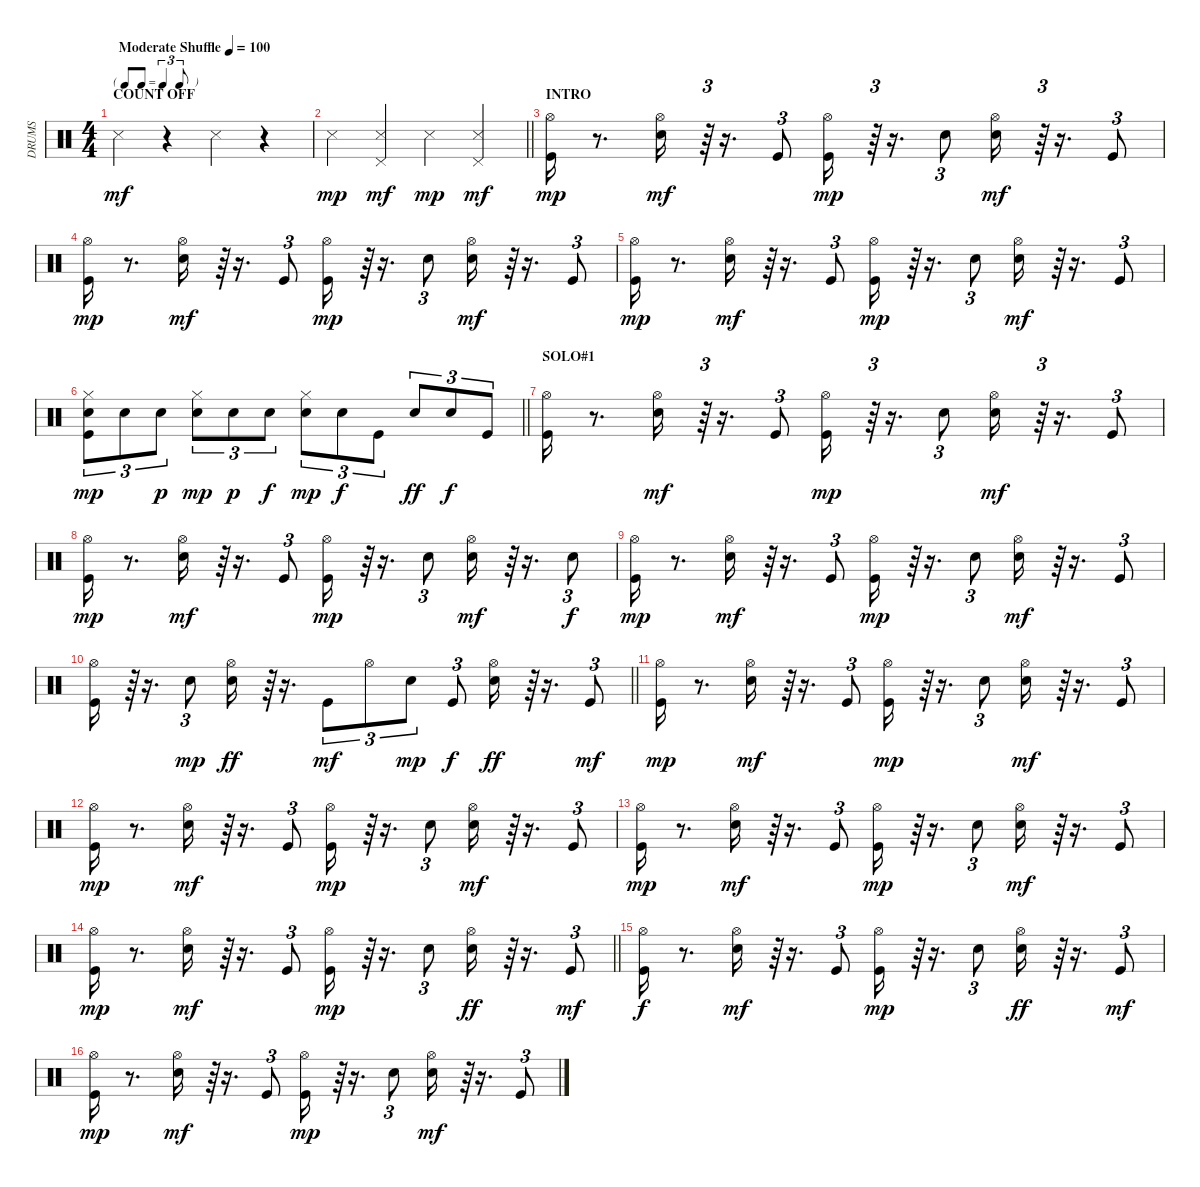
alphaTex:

\track ("DRUMS" "DRUMS") {instrument percussion}
\staff {score}
\articulation defaults
\ts (4 4)
\tf triplet8th
\section ("" "COUNT OFF")
\tempo (100 "Moderate Shuffle")
\clef neutral
\ks c "Snare (side stick) 3".4{dy mf}
r.4 "Snare (side stick) 3".4 r.4 |
\barLineRight lightlight "Snare (side stick) 3".4{dy mp}
("Snare (side stick) 3" "Pedal Hi-Hat (hit)").4{dy mf} "Snare (side stick) 3".4{dy mp} ("Snare (side stick) 3" "Pedal Hi-Hat (hit)").4{dy mf} |
\section ("" "INTRO")
("Kick (hit)" "Hi-Hat (open)").16{dy mp} r.8{d} ("Snare (hit) 2" "Hi-Hat (open)").16{dy mf} r.64{tu (3 2)} r.16{d} "Kick (hit)".8{tu (3 2)} ("Kick (hit)" "Hi-Hat (open)").16{dy mp} r.64{tu (3 2)} r.16{d} "Snare (hit) 2".8{tu (3 2)} ("Snare (hit) 2" "Hi-Hat (open)").16{dy mf} r.64{tu (3 2)} r.16{d} "Kick (hit)".8{tu (3 2)} |
("Kick (hit)" "Hi-Hat (open)").16{dy mp} r.8{d} ("Snare (hit) 2" "Hi-Hat (open)").16{dy mf} r.64{tu (3 2)} r.16{d} "Kick (hit)".8{tu (3 2)} ("Kick (hit)" "Hi-Hat (open)").16{dy mp} r.64{tu (3 2)} r.16{d} "Snare (hit) 2".8{tu (3 2)} ("Snare (hit) 2" "Hi-Hat (open)").16{dy mf} r.64{tu (3 2)} r.16{d} "Kick (hit)".8{tu (3 2)} |
("Kick (hit)" "Hi-Hat (open)").16{dy mp} r.8{d} ("Snare (hit) 2" "Hi-Hat (open)").16{dy mf} r.64{tu (3 2)} r.16{d} "Kick (hit)".8{tu (3 2)} ("Kick (hit)" "Hi-Hat (open)").16{dy mp} r.64{tu (3 2)} r.16{d} "Snare (hit) 2".8{tu (3 2)} ("Snare (hit) 2" "Hi-Hat (open)").16{dy mf} r.64{tu (3 2)} r.16{d} "Kick (hit)".8{tu (3 2)} |
\barLineRight lightlight
("Kick (hit)" "Snare (hit) 2" "Hi-Hat (closed)").8{tu (3 2) dy mp} "Snare (hit) 2".8{tu (3 2)} "Snare (hit) 2".8{tu (3 2) dy p} ("Snare (hit) 2" "Hi-Hat (closed)").8{tu (3 2) dy mp} "Snare (hit) 2".8{tu (3 2) dy p} "Snare (hit) 2".8{tu (3 2) dy f} ("Snare (hit) 2" "Hi-Hat (closed)").8{tu (3 2) dy mp} "Snare (hit) 2".8{tu (3 2) dy f} "Kick (hit)".8{tu (3 2)} "Snare (hit) 2".8{tu (3 2) dy ff} "Snare (hit) 2".8{tu (3 2) dy f} "Kick (hit)".8{tu (3 2)} |
\section ("" "SOLO#1")
("Kick (hit)" "Hi-Hat (open)").16 r.8{d} ("Snare (hit) 2" "Hi-Hat (open)").16{dy mf} r.64{tu (3 2)} r.16{d} "Kick (hit)".8{tu (3 2)} ("Kick (hit)" "Hi-Hat (open)").16{dy mp} r.64{tu (3 2)} r.16{d} "Snare (hit) 2".8{tu (3 2)} ("Snare (hit) 2" "Hi-Hat (open)").16{dy mf} r.64{tu (3 2)} r.16{d} "Kick (hit)".8{tu (3 2)} |
("Kick (hit)" "Hi-Hat (open)").16{dy mp} r.8{d} ("Snare (hit) 2" "Hi-Hat (open)").16{dy mf} r.64{tu (3 2)} r.16{d} "Kick (hit)".8{tu (3 2)} ("Kick (hit)" "Hi-Hat (open)").16{dy mp} r.64{tu (3 2)} r.16{d} "Snare (hit) 2".8{tu (3 2)} ("Snare (hit) 2" "Hi-Hat (open)").16{dy mf} r.64{tu (3 2)} r.16{d} "Snare (hit) 2".8{tu (3 2) dy f} |
("Kick (hit)" "Hi-Hat (open)").16{dy mp} r.8{d} ("Snare (hit) 2" "Hi-Hat (open)").16{dy mf} r.64{tu (3 2)} r.16{d} "Kick (hit)".8{tu (3 2)} ("Kick (hit)" "Hi-Hat (open)").16{dy mp} r.64{tu (3 2)} r.16{d} "Snare (hit) 2".8{tu (3 2)} ("Snare (hit) 2" "Hi-Hat (open)").16{dy mf} r.64{tu (3 2)} r.16{d} "Kick (hit)".8{tu (3 2)} |
\barLineRight lightlight
("Kick (hit)" "Hi-Hat (open)").16 r.64{tu (3 2)} r.16{d} "Snare (hit) 2".8{tu (3 2) dy mp} ("Snare (hit) 2" "Hi-Hat (open)").16{dy ff} r.64{tu (3 2)} r.16{d} "Kick (hit)".8{tu (3 2) dy mf} "Hi-Hat (open)".8{tu (3 2)} "Snare (hit) 2".8{tu (3 2) dy mp} "Kick (hit)".8{tu (3 2) dy f} ("Snare (hit) 2" "Hi-Hat (open)").16{dy ff} r.64{tu (3 2)} r.16{d} "Kick (hit)".8{tu (3 2) dy mf} |
("Kick (hit)" "Hi-Hat (open)").16{dy mp} r.8{d} ("Snare (hit) 2" "Hi-Hat (open)").16{dy mf} r.64{tu (3 2)} r.16{d} "Kick (hit)".8{tu (3 2)} ("Kick (hit)" "Hi-Hat (open)").16{dy mp} r.64{tu (3 2)} r.16{d} "Snare (hit) 2".8{tu (3 2)} ("Snare (hit) 2" "Hi-Hat (open)").16{dy mf} r.64{tu (3 2)} r.16{d} "Kick (hit)".8{tu (3 2)} |
("Kick (hit)" "Hi-Hat (open)").16{dy mp} r.8{d} ("Snare (hit) 2" "Hi-Hat (open)").16{dy mf} r.64{tu (3 2)} r.16{d} "Kick (hit)".8{tu (3 2)} ("Kick (hit)" "Hi-Hat (open)").16{dy mp} r.64{tu (3 2)} r.16{d} "Snare (hit) 2".8{tu (3 2)} ("Snare (hit) 2" "Hi-Hat (open)").16{dy mf} r.64{tu (3 2)} r.16{d} "Kick (hit)".8{tu (3 2)} |
("Kick (hit)" "Hi-Hat (open)").16{dy mp} r.8{d} ("Snare (hit) 2" "Hi-Hat (open)").16{dy mf} r.64{tu (3 2)} r.16{d} "Kick (hit)".8{tu (3 2)} ("Kick (hit)" "Hi-Hat (open)").16{dy mp} r.64{tu (3 2)} r.16{d} "Snare (hit) 2".8{tu (3 2)} ("Snare (hit) 2" "Hi-Hat (open)").16{dy mf} r.64{tu (3 2)} r.16{d} "Kick (hit)".8{tu (3 2)} |
\barLineRight lightlight
("Kick (hit)" "Hi-Hat (open)").16{dy mp} r.8{d} ("Snare (hit) 2" "Hi-Hat (open)").16{dy mf} r.64{tu (3 2)} r.16{d} "Kick (hit)".8{tu (3 2)} ("Kick (hit)" "Hi-Hat (open)").16{dy mp} r.64{tu (3 2)} r.16{d} "Snare (hit) 2".8{tu (3 2)} ("Snare (hit) 2" "Hi-Hat (open)").16{dy ff} r.64{tu (3 2)} r.16{d} "Kick (hit)".8{tu (3 2) dy mf} |
("Kick (hit)" "Hi-Hat (open)").16{dy f} r.8{d} ("Snare (hit) 2" "Hi-Hat (open)").16{dy mf} r.64{tu (3 2)} r.16{d} "Kick (hit)".8{tu (3 2)} ("Kick (hit)" "Hi-Hat (open)").16{dy mp} r.64{tu (3 2)} r.16{d} "Snare (hit) 2".8{tu (3 2)} ("Snare (hit) 2" "Hi-Hat (open)").16{dy ff} r.64{tu (3 2)} r.16{d} "Kick (hit)".8{tu (3 2) dy mf} |
("Kick (hit)" "Hi-Hat (open)").16{dy mp} r.8{d} ("Snare (hit) 2" "Hi-Hat (open)").16{dy mf} r.64{tu (3 2)} r.16{d} "Kick (hit)".8{tu (3 2)} ("Kick (hit)" "Hi-Hat (open)").16{dy mp} r.64{tu (3 2)} r.16{d} "Snare (hit) 2".8{tu (3 2)} ("Snare (hit) 2" "Hi-Hat (open)").16{dy mf} r.64{tu (3 2)} r.16{d} "Kick (hit)".8{tu (3 2)}
